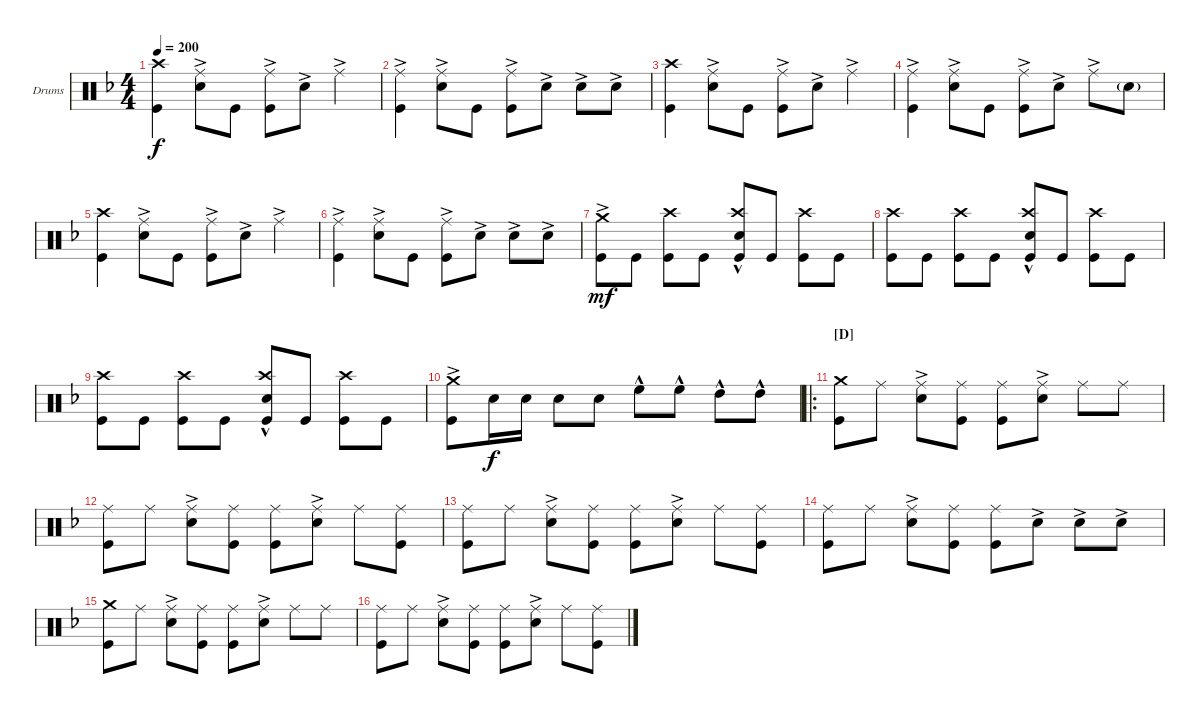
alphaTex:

\bracketExtendMode groupsimilarinstruments
\firstSystemTrackNameOrientation horizontal
\otherSystemsTrackNameOrientation horizontal
\track ("Drumkit" "Drums") {instrument percussion}
\staff {score}
\articulation defaults
\ts (4 4)
\tempo 200
\clef neutral
\ks dminor
("Kick (hit)" "Crash high (hit)").4{dy f} ("Snare (hit) 2"{ac} "Ride (middle)"{ac}).8 "Kick (hit)".8 ("Kick (hit)" "Ride (middle)"{ac}).8 "Snare (hit) 2"{ac}.8 "Ride (middle)"{ac}.4 |
("Kick (hit)" "Ride (middle)"{ac}).4 ("Snare (hit) 2"{ac} "Ride (middle)"{ac}).8 "Kick (hit)".8 ("Kick (hit)" "Ride (middle)"{ac}).8 "Snare (hit) 2"{ac}.8 "Snare (hit) 2"{ac}.8 "Snare (hit) 2"{ac}.8 |
("Kick (hit)" "Crash high (hit)").4 ("Snare (hit) 2"{ac} "Ride (middle)"{ac}).8 "Kick (hit)".8 ("Kick (hit)" "Ride (middle)"{ac}).8 "Snare (hit) 2"{ac}.8 "Ride (middle)"{ac}.4 |
("Kick (hit)" "Ride (middle)"{ac}).4 ("Snare (hit) 2"{ac} "Ride (middle)"{ac}).8 "Kick (hit)".8 ("Kick (hit)" "Ride (middle)"{ac}).8 "Snare (hit) 2"{ac}.8 "Ride (middle)"{ac}.8 "Snare (hit) 2"{g}.8 |
("Kick (hit)" "Crash high (hit)").4 ("Snare (hit) 2"{ac} "Ride (middle)"{ac}).8 "Kick (hit)".8 ("Kick (hit)" "Ride (middle)"{ac}).8 "Snare (hit) 2"{ac}.8 "Ride (middle)"{ac}.4 |
("Kick (hit)" "Ride (middle)"{ac}).4 ("Snare (hit) 2"{ac} "Ride (middle)"{ac}).8 "Kick (hit)".8 ("Kick (hit)" "Ride (middle)"{ac}).8 "Snare (hit) 2"{ac}.8 "Snare (hit) 2"{ac}.8 "Snare (hit) 2"{ac}.8 |
("Kick (hit)" "Crash medium (hit)"{ac}).8{dy mf} "Kick (hit)".8 ("Kick (hit)" "Crash high (hit)").8 "Kick (hit)".8 ("Kick (hit)" "Snare (hit) 2"{hac} "Crash high (hit)").8 "Kick (hit)".8 ("Kick (hit)" "Crash high (hit)").8 "Kick (hit)".8 |
("Kick (hit)" "Crash high (hit)").8 "Kick (hit)".8 ("Kick (hit)" "Crash high (hit)").8 "Kick (hit)".8 ("Kick (hit)" "Snare (hit) 2"{hac} "Crash high (hit)").8 "Kick (hit)".8 ("Kick (hit)" "Crash high (hit)").8 "Kick (hit)".8 |
("Kick (hit)" "Crash high (hit)").8 "Kick (hit)".8 ("Kick (hit)" "Crash high (hit)").8 "Kick (hit)".8 ("Kick (hit)" "Snare (hit) 2"{hac} "Crash high (hit)").8 "Kick (hit)".8 ("Kick (hit)" "Crash high (hit)").8 "Kick (hit)".8 |
("Kick (hit)" "Crash medium (hit)"{ac}).8 "Snare (hit) 2".16{dy f} "Snare (hit) 2".16 "Snare (hit) 2".8 "Snare (hit) 2".8 "High Floor Tom (hit)"{hac}.8 "High Floor Tom (hit)"{hac}.8 "High Tom (hit)"{hac}.8 "High Tom (hit)"{hac}.8 |
\ro
\section ("D" "")
("Kick (hit)" "Crash medium (hit)").8 "Ride (middle)".8 ("Snare (hit) 2"{ac} "Ride (middle)").8 ("Kick (hit)" "Ride (middle)").8 ("Kick (hit)" "Ride (middle)").8 ("Snare (hit) 2"{ac} "Ride (middle)").8 "Ride (middle)".8 "Ride (middle)".8 |
("Kick (hit)" "Ride (middle)").8 "Ride (middle)".8 ("Snare (hit) 2"{ac} "Ride (middle)").8 ("Kick (hit)" "Ride (middle)").8 ("Kick (hit)" "Ride (middle)").8 ("Snare (hit) 2"{ac} "Ride (middle)").8 "Ride (middle)".8 ("Kick (hit)" "Ride (middle)").8 |
("Kick (hit)" "Ride (middle)").8 "Ride (middle)".8 ("Snare (hit) 2"{ac} "Ride (middle)").8 ("Kick (hit)" "Ride (middle)").8 ("Kick (hit)" "Ride (middle)").8 ("Snare (hit) 2"{ac} "Ride (middle)").8 "Ride (middle)".8 ("Kick (hit)" "Ride (middle)").8 |
("Kick (hit)" "Ride (middle)").8 "Ride (middle)".8 ("Snare (hit) 2"{ac} "Ride (middle)").8 ("Kick (hit)" "Ride (middle)").8 ("Kick (hit)" "Ride (middle)").8 "Snare (hit) 2"{ac}.8 "Snare (hit) 2"{ac}.8 "Snare (hit) 2"{ac}.8 |
("Kick (hit)" "Crash medium (hit)").8 "Ride (middle)".8 ("Snare (hit) 2"{ac} "Ride (middle)").8 ("Kick (hit)" "Ride (middle)").8 ("Kick (hit)" "Ride (middle)").8 ("Snare (hit) 2"{ac} "Ride (middle)").8 "Ride (middle)".8 "Ride (middle)".8 |
("Kick (hit)" "Ride (middle)").8 "Ride (middle)".8 ("Snare (hit) 2"{ac} "Ride (middle)").8 ("Kick (hit)" "Ride (middle)").8 ("Kick (hit)" "Ride (middle)").8 ("Snare (hit) 2"{ac} "Ride (middle)").8 "Ride (middle)".8 ("Kick (hit)" "Ride (middle)").8
